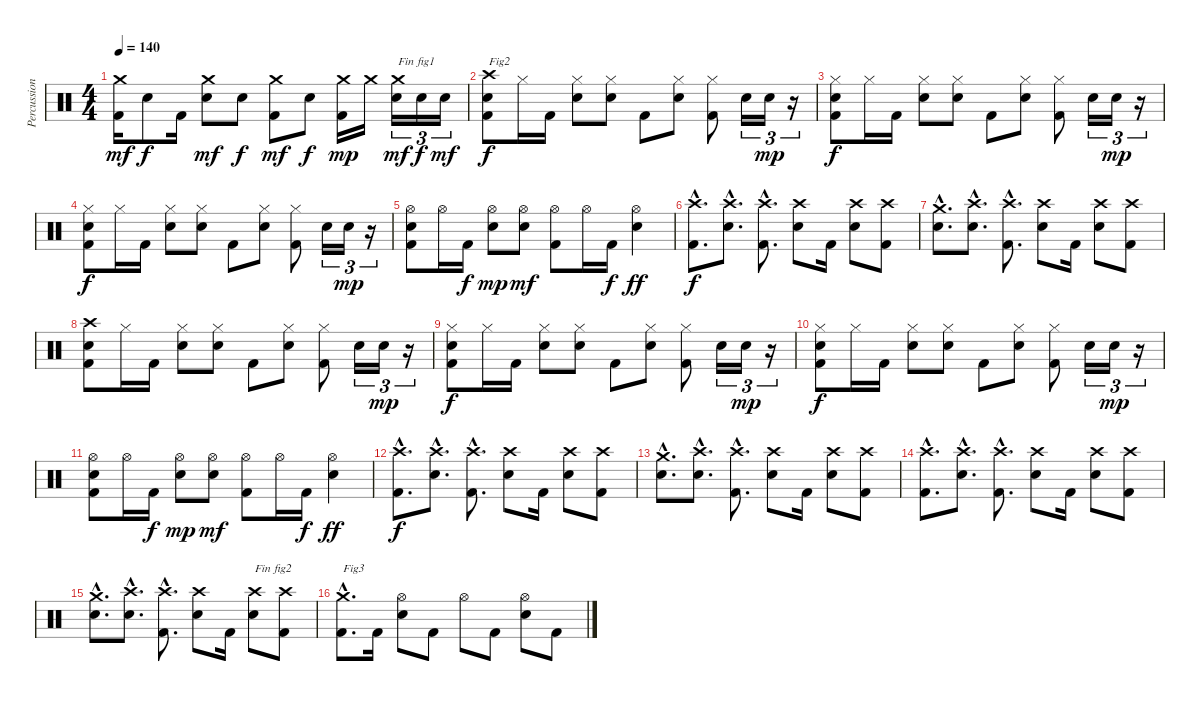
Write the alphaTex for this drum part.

\track ("Percussions" "Percussion") {instrument percussion}
\staff {score}
\articulation defaults
\ts (4 4)
\tempo 140
\clef neutral
\ks c
("Kick (hit) 2" "Crash medium (hit)").16{dy mf} "Electric Snare (hit)".8{dy f} "Kick (hit) 2".16 ("Electric Snare (hit)" "Crash medium (hit)").8{dy mf} "Electric Snare (hit)".8{dy f} ("Kick (hit) 2" "Crash medium (hit)").8{dy mf} "Electric Snare (hit)".8{dy f} ("Kick (hit) 2" "Crash medium (hit)").16{dy mp} "Crash medium (hit)".16 ("Electric Snare (hit)" "Crash medium (hit)").16{tu (3 2) txt "Fin fig1" dy mf} "Electric Snare (hit)".16{tu (3 2) dy f} "Electric Snare (hit)".16{tu (3 2) dy mf} |
("Kick (hit) 2" "Electric Snare (hit)" "Crash high (hit)").8{txt "Fig2" dy f} "Hi-Hat (closed)".16 "Kick (hit) 2".16 ("Electric Snare (hit)" "Hi-Hat (closed)").8 ("Electric Snare (hit)" "Hi-Hat (closed)").8 "Kick (hit) 2".8 ("Electric Snare (hit)" "Hi-Hat (closed)").8 ("Kick (hit) 2" "Hi-Hat (closed)").8 "Electric Snare (hit)".16{tu (3 2)} "Electric Snare (hit)".16{tu (3 2) dy mp} r.16{tu (3 2)} |
("Kick (hit) 2" "Electric Snare (hit)" "Hi-Hat (closed)").8{dy f} "Hi-Hat (closed)".16 "Kick (hit) 2".16 ("Electric Snare (hit)" "Hi-Hat (closed)").8 ("Electric Snare (hit)" "Hi-Hat (closed)").8 "Kick (hit) 2".8 ("Electric Snare (hit)" "Hi-Hat (closed)").8 ("Kick (hit) 2" "Hi-Hat (closed)").8 "Electric Snare (hit)".16{tu (3 2)} "Electric Snare (hit)".16{tu (3 2) dy mp} r.16{tu (3 2)} |
("Kick (hit) 2" "Electric Snare (hit)" "Hi-Hat (closed)").8{dy f} "Hi-Hat (closed)".16 "Kick (hit) 2".16 ("Electric Snare (hit)" "Hi-Hat (closed)").8 ("Electric Snare (hit)" "Hi-Hat (closed)").8 "Kick (hit) 2".8 ("Electric Snare (hit)" "Hi-Hat (closed)").8 ("Kick (hit) 2" "Hi-Hat (closed)").8 "Electric Snare (hit)".16{tu (3 2)} "Electric Snare (hit)".16{tu (3 2) dy mp} r.16{tu (3 2)} |
("Kick (hit) 2" "Electric Snare (hit)" "Hi-Hat (open)").8 "Hi-Hat (open)".16 "Kick (hit) 2".16{dy f} ("Electric Snare (hit)" "Hi-Hat (open)").8{dy mp} ("Electric Snare (hit)" "Hi-Hat (open)").8{dy mf} ("Kick (hit) 2" "Hi-Hat (open)").8 "Hi-Hat (open)".16 "Kick (hit) 2".16{dy f} ("Electric Snare (hit)" "Hi-Hat (open)").4{dy ff} |
("Kick (hit) 2"{hac} "Crash high (hit)"{hac}).8{d dy f} ("Electric Snare (hit)"{hac} "Crash high (hit)"{hac}).8{d} ("Kick (hit) 2"{hac} "Crash high (hit)"{hac}).8{d} ("Electric Snare (hit)" "Crash high (hit)").8 "Kick (hit) 2".16 ("Electric Snare (hit)" "Crash high (hit)").8 ("Kick (hit) 2" "Crash high (hit)").8 |
("Electric Snare (hit)"{hac} "Crash medium (hit)"{hac}).8{d} ("Electric Snare (hit)"{hac} "Crash high (hit)"{hac}).8{d} ("Kick (hit) 2"{hac} "Crash high (hit)"{hac}).8{d} ("Electric Snare (hit)" "Crash high (hit)").8 "Kick (hit) 2".16 ("Electric Snare (hit)" "Crash high (hit)").8 ("Kick (hit) 2" "Crash high (hit)").8 |
("Kick (hit) 2" "Electric Snare (hit)" "Crash high (hit)").8 "Hi-Hat (closed)".16 "Kick (hit) 2".16 ("Electric Snare (hit)" "Hi-Hat (closed)").8 ("Electric Snare (hit)" "Hi-Hat (closed)").8 "Kick (hit) 2".8 ("Electric Snare (hit)" "Hi-Hat (closed)").8 ("Kick (hit) 2" "Hi-Hat (closed)").8 "Electric Snare (hit)".16{tu (3 2)} "Electric Snare (hit)".16{tu (3 2) dy mp} r.16{tu (3 2)} |
("Kick (hit) 2" "Electric Snare (hit)" "Hi-Hat (closed)").8{dy f} "Hi-Hat (closed)".16 "Kick (hit) 2".16 ("Electric Snare (hit)" "Hi-Hat (closed)").8 ("Electric Snare (hit)" "Hi-Hat (closed)").8 "Kick (hit) 2".8 ("Electric Snare (hit)" "Hi-Hat (closed)").8 ("Kick (hit) 2" "Hi-Hat (closed)").8 "Electric Snare (hit)".16{tu (3 2)} "Electric Snare (hit)".16{tu (3 2) dy mp} r.16{tu (3 2)} |
("Kick (hit) 2" "Electric Snare (hit)" "Hi-Hat (closed)").8{dy f} "Hi-Hat (closed)".16 "Kick (hit) 2".16 ("Electric Snare (hit)" "Hi-Hat (closed)").8 ("Electric Snare (hit)" "Hi-Hat (closed)").8 "Kick (hit) 2".8 ("Electric Snare (hit)" "Hi-Hat (closed)").8 ("Kick (hit) 2" "Hi-Hat (closed)").8 "Electric Snare (hit)".16{tu (3 2)} "Electric Snare (hit)".16{tu (3 2) dy mp} r.16{tu (3 2)} |
("Kick (hit) 2" "Electric Snare (hit)" "Hi-Hat (open)").8 "Hi-Hat (open)".16 "Kick (hit) 2".16{dy f} ("Electric Snare (hit)" "Hi-Hat (open)").8{dy mp} ("Electric Snare (hit)" "Hi-Hat (open)").8{dy mf} ("Kick (hit) 2" "Hi-Hat (open)").8 "Hi-Hat (open)".16 "Kick (hit) 2".16{dy f} ("Electric Snare (hit)" "Hi-Hat (open)").4{dy ff} |
("Kick (hit) 2"{hac} "Crash high (hit)"{hac}).8{d dy f} ("Electric Snare (hit)"{hac} "Crash high (hit)"{hac}).8{d} ("Kick (hit) 2"{hac} "Crash high (hit)"{hac}).8{d} ("Electric Snare (hit)" "Crash high (hit)").8 "Kick (hit) 2".16 ("Electric Snare (hit)" "Crash high (hit)").8 ("Kick (hit) 2" "Crash high (hit)").8 |
("Electric Snare (hit)"{hac} "Crash medium (hit)"{hac}).8{d} ("Electric Snare (hit)"{hac} "Crash high (hit)"{hac}).8{d} ("Kick (hit) 2"{hac} "Crash high (hit)"{hac}).8{d} ("Electric Snare (hit)" "Crash high (hit)").8 "Kick (hit) 2".16 ("Electric Snare (hit)" "Crash high (hit)").8 ("Kick (hit) 2" "Crash high (hit)").8 |
("Kick (hit) 2"{hac} "Crash high (hit)"{hac}).8{d} ("Electric Snare (hit)"{hac} "Crash high (hit)"{hac}).8{d} ("Kick (hit) 2"{hac} "Crash high (hit)"{hac}).8{d} ("Electric Snare (hit)" "Crash high (hit)").8 "Kick (hit) 2".16 ("Electric Snare (hit)" "Crash high (hit)").8 ("Kick (hit) 2" "Crash high (hit)").8 |
("Electric Snare (hit)"{hac} "Crash medium (hit)"{hac}).8{d} ("Electric Snare (hit)"{hac} "Crash high (hit)"{hac}).8{d} ("Kick (hit) 2"{hac} "Crash high (hit)"{hac}).8{d} ("Electric Snare (hit)" "Crash high (hit)").8 "Kick (hit) 2".16 ("Electric Snare (hit)" "Crash high (hit)").8{txt "Fin fig2"} ("Kick (hit) 2" "Crash high (hit)").8 |
("Kick (hit) 2"{hac} "Crash medium (hit)"{hac}).8{d txt "Fig3"} "Kick (hit) 2".16 ("Electric Snare (hit)" "Hi-Hat (open)").8 "Kick (hit) 2".8 "Hi-Hat (open)".8 "Kick (hit) 2".8 ("Electric Snare (hit)" "Hi-Hat (open)").8 "Kick (hit) 2".8
